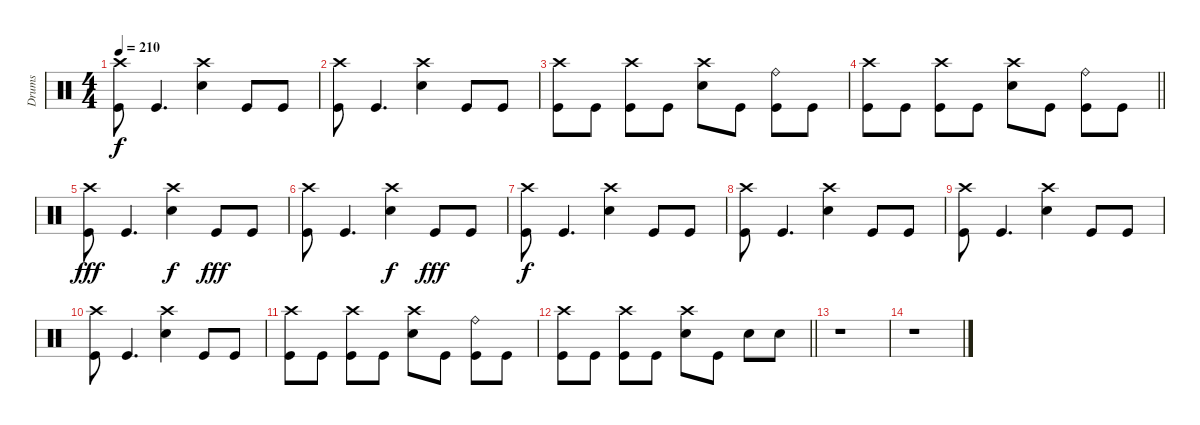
\track ("Drums" "Drums") {instrument percussion}
\staff {score}
\articulation defaults
\ts (4 4)
\tempo 210
\clef neutral
\ks c
("Crash high (hit)" "Kick (hit)").8{dy f} "Kick (hit)".4{d} ("Crash high (hit)" "Snare (hit) 2").4 "Kick (hit)".8 "Kick (hit)".8 |
("Crash high (hit)" "Kick (hit)").8 "Kick (hit)".4{d} ("Crash high (hit)" "Snare (hit) 2").4 "Kick (hit)".8 "Kick (hit)".8 |
("Crash high (hit)" "Kick (hit)").8 "Kick (hit)".8 ("Crash high (hit)" "Kick (hit)").8 "Kick (hit)".8 ("Crash high (hit)" "Snare (hit) 2").8 "Kick (hit)".8 ("Ride (bell)" "Kick (hit)").8 "Kick (hit)".8 |
\barLineRight lightlight
("Crash high (hit)" "Kick (hit)").8 "Kick (hit)".8 ("Crash high (hit)" "Kick (hit)").8 "Kick (hit)".8 ("Crash high (hit)" "Snare (hit) 2").8 "Kick (hit)".8 ("Ride (bell)" "Kick (hit)").8 "Kick (hit)".8 |
\section ("" "")
("Crash high (hit)" "Kick (hit)").8{dy fff} "Kick (hit)".4{d} ("Crash high (hit)" "Snare (hit) 2").4{dy f} "Kick (hit)".8{dy fff} "Kick (hit)".8 |
("Crash high (hit)" "Kick (hit)").8 "Kick (hit)".4{d} ("Crash high (hit)" "Snare (hit) 2").4{dy f} "Kick (hit)".8{dy fff} "Kick (hit)".8 |
("Crash high (hit)" "Kick (hit)").8{dy f} "Kick (hit)".4{d} ("Crash high (hit)" "Snare (hit) 2").4 "Kick (hit)".8 "Kick (hit)".8 |
("Crash high (hit)" "Kick (hit)").8 "Kick (hit)".4{d} ("Crash high (hit)" "Snare (hit) 2").4 "Kick (hit)".8 "Kick (hit)".8 |
("Crash high (hit)" "Kick (hit)").8 "Kick (hit)".4{d} ("Crash high (hit)" "Snare (hit) 2").4 "Kick (hit)".8 "Kick (hit)".8 |
("Crash high (hit)" "Kick (hit)").8 "Kick (hit)".4{d} ("Crash high (hit)" "Snare (hit) 2").4 "Kick (hit)".8 "Kick (hit)".8 |
("Crash high (hit)" "Kick (hit)").8 "Kick (hit)".8 ("Crash high (hit)" "Kick (hit)").8 "Kick (hit)".8 ("Crash high (hit)" "Snare (hit) 2").8 "Kick (hit)".8 ("Ride (bell)" "Kick (hit)").8 "Kick (hit)".8 |
\barLineRight lightlight
("Crash high (hit)" "Kick (hit)").8 "Kick (hit)".8 ("Crash high (hit)" "Kick (hit)").8 "Kick (hit)".8 ("Crash high (hit)" "Snare (hit) 2").8 "Kick (hit)".8 "Snare (hit) 2".8 "Snare (hit) 2".8 |
r.1 |
r.1
